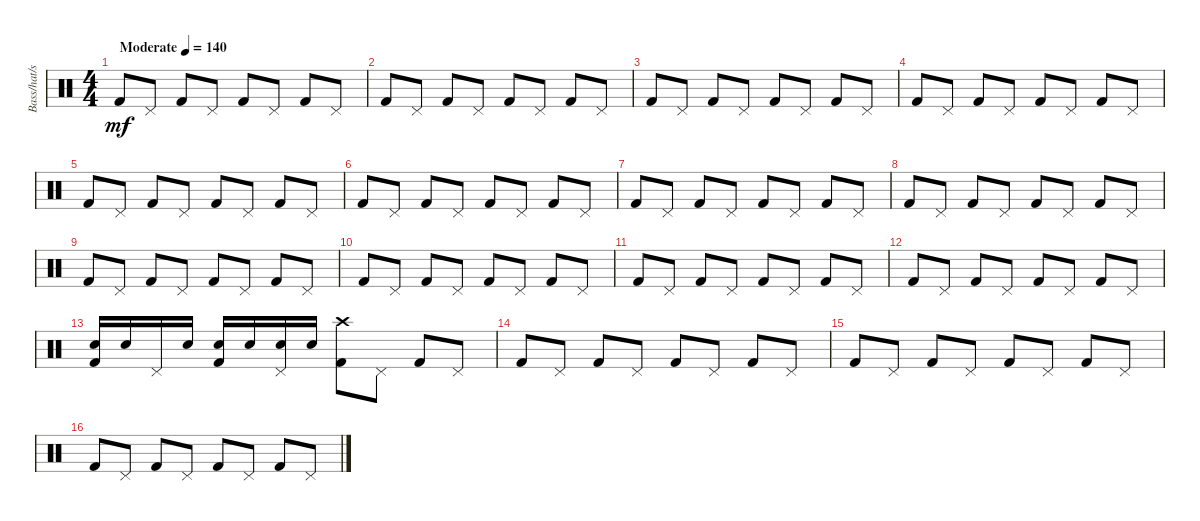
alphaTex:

\track ("Bass/hat/snare/cymbal" "Bass/hat/s") {instrument percussion}
\staff {score}
\articulation defaults
\ts (4 4)
\tempo (140 "Moderate")
\clef neutral
\ks c "Kick (hit) 2".8{dy mf} "Pedal Hi-Hat (hit)".8 "Kick (hit) 2".8 "Pedal Hi-Hat (hit)".8 "Kick (hit) 2".8 "Pedal Hi-Hat (hit)".8 "Kick (hit) 2".8 "Pedal Hi-Hat (hit)".8
|
"Kick (hit) 2".8 "Pedal Hi-Hat (hit)".8 "Kick (hit) 2".8 "Pedal Hi-Hat (hit)".8 "Kick (hit) 2".8 "Pedal Hi-Hat (hit)".8 "Kick (hit) 2".8 "Pedal Hi-Hat (hit)".8 |
"Kick (hit) 2".8 "Pedal Hi-Hat (hit)".8 "Kick (hit) 2".8 "Pedal Hi-Hat (hit)".8 "Kick (hit) 2".8 "Pedal Hi-Hat (hit)".8 "Kick (hit) 2".8 "Pedal Hi-Hat (hit)".8 |
"Kick (hit) 2".8 "Pedal Hi-Hat (hit)".8 "Kick (hit) 2".8 "Pedal Hi-Hat (hit)".8 "Kick (hit) 2".8 "Pedal Hi-Hat (hit)".8 "Kick (hit) 2".8 "Pedal Hi-Hat (hit)".8 |
"Kick (hit) 2".8 "Pedal Hi-Hat (hit)".8 "Kick (hit) 2".8 "Pedal Hi-Hat (hit)".8 "Kick (hit) 2".8 "Pedal Hi-Hat (hit)".8 "Kick (hit) 2".8 "Pedal Hi-Hat (hit)".8 |
"Kick (hit) 2".8 "Pedal Hi-Hat (hit)".8 "Kick (hit) 2".8 "Pedal Hi-Hat (hit)".8 "Kick (hit) 2".8 "Pedal Hi-Hat (hit)".8 "Kick (hit) 2".8 "Pedal Hi-Hat (hit)".8 |
"Kick (hit) 2".8 "Pedal Hi-Hat (hit)".8 "Kick (hit) 2".8 "Pedal Hi-Hat (hit)".8 "Kick (hit) 2".8 "Pedal Hi-Hat (hit)".8 "Kick (hit) 2".8 "Pedal Hi-Hat (hit)".8 |
"Kick (hit) 2".8 "Pedal Hi-Hat (hit)".8 "Kick (hit) 2".8 "Pedal Hi-Hat (hit)".8 "Kick (hit) 2".8 "Pedal Hi-Hat (hit)".8 "Kick (hit) 2".8 "Pedal Hi-Hat (hit)".8 |
"Kick (hit) 2".8 "Pedal Hi-Hat (hit)".8 "Kick (hit) 2".8 "Pedal Hi-Hat (hit)".8 "Kick (hit) 2".8 "Pedal Hi-Hat (hit)".8 "Kick (hit) 2".8 "Pedal Hi-Hat (hit)".8 |
"Kick (hit) 2".8 "Pedal Hi-Hat (hit)".8 "Kick (hit) 2".8 "Pedal Hi-Hat (hit)".8 "Kick (hit) 2".8 "Pedal Hi-Hat (hit)".8 "Kick (hit) 2".8 "Pedal Hi-Hat (hit)".8 |
"Kick (hit) 2".8 "Pedal Hi-Hat (hit)".8 "Kick (hit) 2".8 "Pedal Hi-Hat (hit)".8 "Kick (hit) 2".8 "Pedal Hi-Hat (hit)".8 "Kick (hit) 2".8 "Pedal Hi-Hat (hit)".8 |
"Kick (hit) 2".8 "Pedal Hi-Hat (hit)".8 "Kick (hit) 2".8 "Pedal Hi-Hat (hit)".8 "Kick (hit) 2".8 "Pedal Hi-Hat (hit)".8 "Kick (hit) 2".8 "Pedal Hi-Hat (hit)".8 |
("Kick (hit) 2" "Snare (hit) 2").16 "Snare (hit) 2".16 "Pedal Hi-Hat (hit)".16 "Snare (hit) 2".16 ("Kick (hit) 2" "Snare (hit) 2").16 "Snare (hit) 2".16 ("Snare (hit) 2" "Pedal Hi-Hat (hit)").16 "Snare (hit) 2".16 ("Kick (hit) 2" "Crash high (hit)").8 "Pedal Hi-Hat (hit)".8 "Kick (hit) 2".8 "Pedal Hi-Hat (hit)".8 |
"Kick (hit) 2".8 "Pedal Hi-Hat (hit)".8 "Kick (hit) 2".8 "Pedal Hi-Hat (hit)".8 "Kick (hit) 2".8 "Pedal Hi-Hat (hit)".8 "Kick (hit) 2".8 "Pedal Hi-Hat (hit)".8 |
"Kick (hit) 2".8 "Pedal Hi-Hat (hit)".8 "Kick (hit) 2".8 "Pedal Hi-Hat (hit)".8 "Kick (hit) 2".8 "Pedal Hi-Hat (hit)".8 "Kick (hit) 2".8 "Pedal Hi-Hat (hit)".8 |
"Kick (hit) 2".8 "Pedal Hi-Hat (hit)".8 "Kick (hit) 2".8 "Pedal Hi-Hat (hit)".8 "Kick (hit) 2".8 "Pedal Hi-Hat (hit)".8 "Kick (hit) 2".8 "Pedal Hi-Hat (hit)".8
